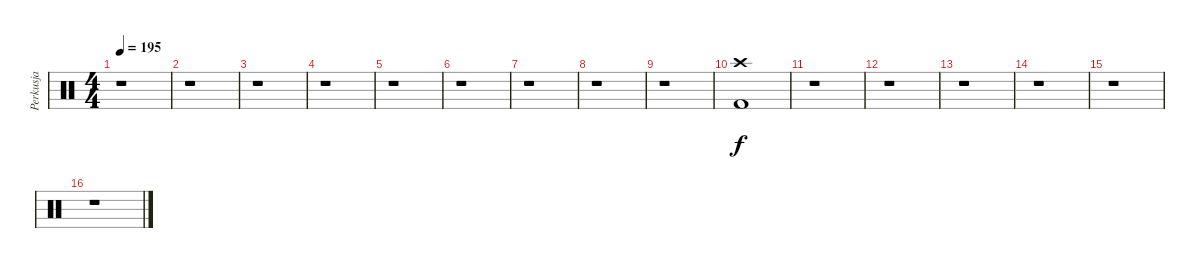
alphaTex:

\track ("Perkusja" "Perkusja") {instrument percussion}
\staff {score}
\articulation defaults
\ts (4 4)
\tempo 195
\clef neutral
\ks c
r.1{dy f} |
r.1 |
r.1 |
r.1 |
r.1 |
r.1 |
r.1 |
r.1 |
r.1 |
("Kick (hit) 2" "Crash high (hit)").1 |
r.1 |
r.1 |
r.1 |
r.1 |
r.1 |
r.1
